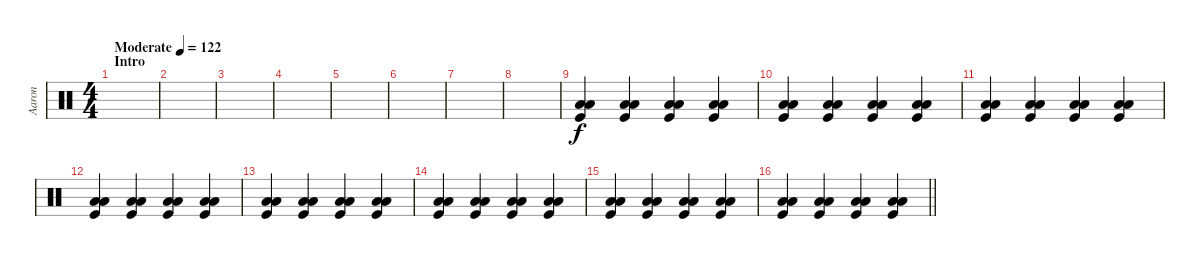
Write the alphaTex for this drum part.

\track ("Aaron" "Aaron") {instrument percussion}
\staff {score}
\articulation defaults
\ts (4 4)
\section ("" "Intro")
\tempo (122 "Moderate")
\clef neutral
\ks c
|
|
|
|
|
|
|
|
("Low Floor Tom (hit)" "Low Floor Tom (hit)" "Kick (hit)").4 ("Low Floor Tom (hit)" "Low Floor Tom (hit)" "Kick (hit)").4 ("Low Floor Tom (hit)" "Low Floor Tom (hit)" "Kick (hit)").4 ("Low Floor Tom (hit)" "Low Floor Tom (hit)" "Kick (hit)").4 |
("Low Floor Tom (hit)" "Low Floor Tom (hit)" "Kick (hit)").4 ("Low Floor Tom (hit)" "Low Floor Tom (hit)" "Kick (hit)").4 ("Low Floor Tom (hit)" "Low Floor Tom (hit)" "Kick (hit)").4 ("Low Floor Tom (hit)" "Low Floor Tom (hit)" "Kick (hit)").4 |
("Low Floor Tom (hit)" "Low Floor Tom (hit)" "Kick (hit)").4 ("Low Floor Tom (hit)" "Low Floor Tom (hit)" "Kick (hit)").4 ("Low Floor Tom (hit)" "Low Floor Tom (hit)" "Kick (hit)").4 ("Low Floor Tom (hit)" "Low Floor Tom (hit)" "Kick (hit)").4 |
("Low Floor Tom (hit)" "Low Floor Tom (hit)" "Kick (hit)").4 ("Low Floor Tom (hit)" "Low Floor Tom (hit)" "Kick (hit)").4 ("Low Floor Tom (hit)" "Low Floor Tom (hit)" "Kick (hit)").4 ("Low Floor Tom (hit)" "Low Floor Tom (hit)" "Kick (hit)").4 |
("Low Floor Tom (hit)" "Low Floor Tom (hit)" "Kick (hit)").4 ("Low Floor Tom (hit)" "Low Floor Tom (hit)" "Kick (hit)").4 ("Low Floor Tom (hit)" "Low Floor Tom (hit)" "Kick (hit)").4 ("Low Floor Tom (hit)" "Low Floor Tom (hit)" "Kick (hit)").4 |
("Low Floor Tom (hit)" "Low Floor Tom (hit)" "Kick (hit)").4 ("Low Floor Tom (hit)" "Low Floor Tom (hit)" "Kick (hit)").4 ("Low Floor Tom (hit)" "Low Floor Tom (hit)" "Kick (hit)").4 ("Low Floor Tom (hit)" "Low Floor Tom (hit)" "Kick (hit)").4 |
("Low Floor Tom (hit)" "Low Floor Tom (hit)" "Kick (hit)").4 ("Low Floor Tom (hit)" "Low Floor Tom (hit)" "Kick (hit)").4 ("Low Floor Tom (hit)" "Low Floor Tom (hit)" "Kick (hit)").4 ("Low Floor Tom (hit)" "Low Floor Tom (hit)" "Kick (hit)").4 |
\barLineRight lightlight
("Low Floor Tom (hit)" "Low Floor Tom (hit)" "Kick (hit)").4 ("Low Floor Tom (hit)" "Low Floor Tom (hit)" "Kick (hit)").4 ("Low Floor Tom (hit)" "Low Floor Tom (hit)" "Kick (hit)").4 ("Low Floor Tom (hit)" "Low Floor Tom (hit)" "Kick (hit)").4
